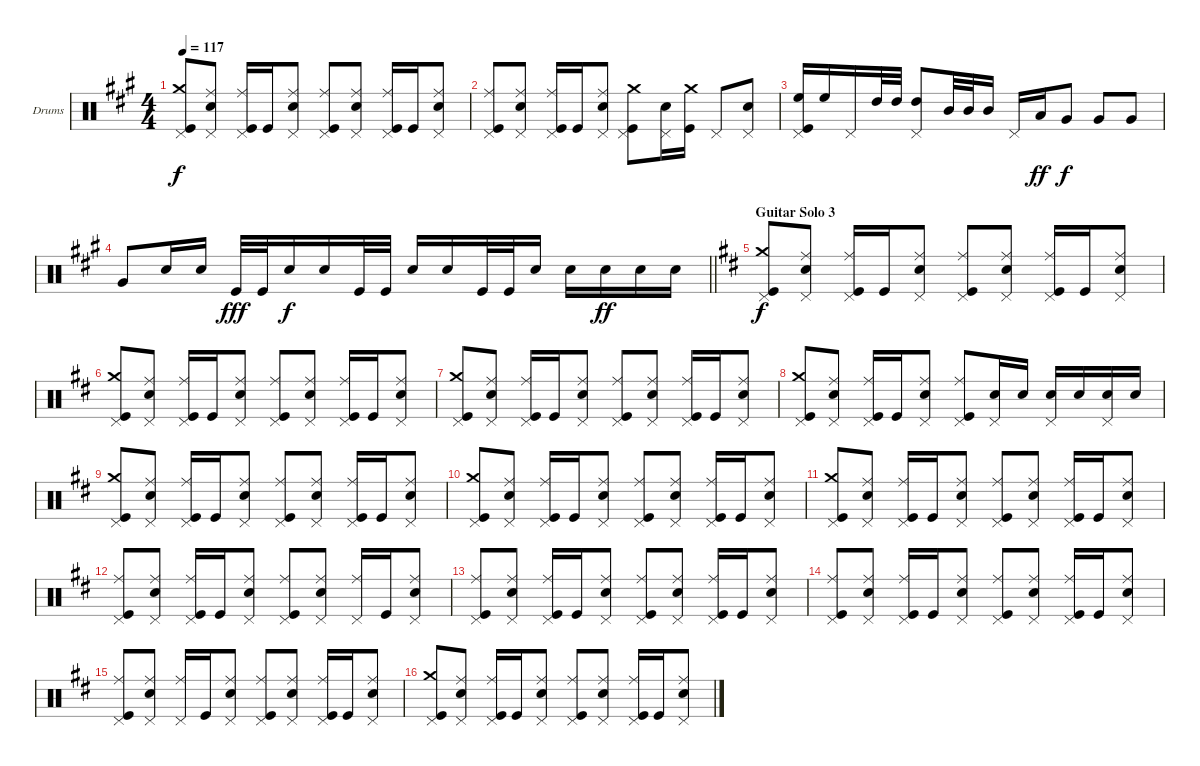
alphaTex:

\bracketExtendMode groupsimilarinstruments
\firstSystemTrackNameOrientation horizontal
\otherSystemsTrackNameOrientation horizontal
\track ("Барабаны" "Drums") {instrument percussion}
\staff {score}
\articulation defaults
\ts (4 4)
\tempo 117
\clef neutral
\ks f#minor
("Kick (hit)" "Crash medium (hit)" "Pedal Hi-Hat (hit)").8{dy f} ("Snare (hit) 2" "Pedal Hi-Hat (hit)" "Ride (middle)").8 ("Kick (hit)" "Pedal Hi-Hat (hit)" "Ride (middle)").16 "Kick (hit)".16 ("Snare (hit) 2" "Pedal Hi-Hat (hit)" "Ride (middle)").8 ("Kick (hit)" "Pedal Hi-Hat (hit)" "Ride (middle)").8 ("Snare (hit) 2" "Pedal Hi-Hat (hit)" "Ride (middle)").8 ("Kick (hit)" "Pedal Hi-Hat (hit)" "Ride (middle)").16 "Kick (hit)".16 ("Snare (hit) 2" "Pedal Hi-Hat (hit)" "Ride (middle)").8 |
("Kick (hit)" "Ride (middle)" "Pedal Hi-Hat (hit)").8 ("Snare (hit) 2" "Ride (middle)" "Pedal Hi-Hat (hit)").8 ("Kick (hit)" "Ride (middle)" "Pedal Hi-Hat (hit)").16 "Kick (hit)".16 ("Snare (hit) 2" "Ride (middle)" "Pedal Hi-Hat (hit)").8 ("Kick (hit)" "Crash medium (hit)" "Pedal Hi-Hat (hit)").8 ("Snare (hit) 2" "Pedal Hi-Hat (hit)").16 ("Kick (hit)" "Crash medium (hit)").16 "Pedal Hi-Hat (hit)".8 ("Snare (hit) 2" "Pedal Hi-Hat (hit)").8 |
("Kick (hit)" "Pedal Hi-Hat (hit)" "High Floor Tom (hit)").16 "High Floor Tom (hit)".16 "Pedal Hi-Hat (hit)".16 "High Tom (hit)".32 "High Tom (hit)".32 ("High Tom (hit)" "Pedal Hi-Hat (hit)").8 "Mid Tom (hit)".32 "Mid Tom (hit)".32 "Mid Tom (hit)".16 "Pedal Hi-Hat (hit)".16 "Low Tom (hit)".16{dy ff} "Very Low Tom (hit)".8{dy f} "Very Low Tom (hit)".8 "Very Low Tom (hit)".8 |
\barLineRight lightlight "Very Low Tom (hit)".8 "Snare (hit) 2".16 "Snare (hit) 2".16 "Kick (hit)".32{dy fff} "Kick (hit)".32 "Snare (hit) 2".16{dy f} "Snare (hit) 2".16 "Kick (hit)".32 "Kick (hit)".32 "Snare (hit) 2".16 "Snare (hit) 2".16 "Kick (hit)".32 "Kick (hit)".32 "Snare (hit) 2".16 "Snare (hit) 2".16 "Snare (hit) 2".16{dy ff} "Snare (hit) 2".16 "Snare (hit) 2".16
|
\section ("" "Guitar Solo 3")
\ks bminor
("Kick (hit)" "Crash medium (hit)" "Pedal Hi-Hat (hit)").8{dy f} ("Snare (hit) 2" "Ride (middle)" "Pedal Hi-Hat (hit)").8 ("Kick (hit)" "Ride (middle)" "Pedal Hi-Hat (hit)").16 "Kick (hit)".16 ("Snare (hit) 2" "Ride (middle)" "Pedal Hi-Hat (hit)").8 ("Kick (hit)" "Ride (middle)" "Pedal Hi-Hat (hit)").8 ("Snare (hit) 2" "Ride (middle)" "Pedal Hi-Hat (hit)").8 ("Kick (hit)" "Ride (middle)" "Pedal Hi-Hat (hit)").16 "Kick (hit)".16 ("Snare (hit) 2" "Ride (middle)" "Pedal Hi-Hat (hit)").8 |
("Kick (hit)" "Crash medium (hit)" "Pedal Hi-Hat (hit)").8 ("Snare (hit) 2" "Ride (middle)" "Pedal Hi-Hat (hit)").8 ("Kick (hit)" "Ride (middle)" "Pedal Hi-Hat (hit)").16 "Kick (hit)".16 ("Snare (hit) 2" "Ride (middle)" "Pedal Hi-Hat (hit)").8 ("Kick (hit)" "Ride (middle)" "Pedal Hi-Hat (hit)").8 ("Snare (hit) 2" "Ride (middle)" "Pedal Hi-Hat (hit)").8 ("Kick (hit)" "Ride (middle)" "Pedal Hi-Hat (hit)").16 "Kick (hit)".16 ("Snare (hit) 2" "Ride (middle)" "Pedal Hi-Hat (hit)").8 |
("Kick (hit)" "Crash medium (hit)" "Pedal Hi-Hat (hit)").8 ("Snare (hit) 2" "Ride (middle)" "Pedal Hi-Hat (hit)").8 ("Kick (hit)" "Ride (middle)" "Pedal Hi-Hat (hit)").16 "Kick (hit)".16 ("Snare (hit) 2" "Ride (middle)" "Pedal Hi-Hat (hit)").8 ("Kick (hit)" "Ride (middle)" "Pedal Hi-Hat (hit)").8 ("Snare (hit) 2" "Ride (middle)" "Pedal Hi-Hat (hit)").8 ("Kick (hit)" "Ride (middle)" "Pedal Hi-Hat (hit)").16 "Kick (hit)".16 ("Snare (hit) 2" "Ride (middle)" "Pedal Hi-Hat (hit)").8 |
("Kick (hit)" "Crash medium (hit)" "Pedal Hi-Hat (hit)").8 ("Snare (hit) 2" "Ride (middle)" "Pedal Hi-Hat (hit)").8 ("Kick (hit)" "Ride (middle)" "Pedal Hi-Hat (hit)").16 "Kick (hit)".16 ("Snare (hit) 2" "Ride (middle)" "Pedal Hi-Hat (hit)").8 ("Kick (hit)" "Ride (middle)" "Pedal Hi-Hat (hit)").8 ("Snare (hit) 2" "Pedal Hi-Hat (hit)").16 "Snare (hit) 2".16 ("Snare (hit) 2" "Pedal Hi-Hat (hit)").16 "Snare (hit) 2".16 ("Snare (hit) 2" "Pedal Hi-Hat (hit)").16 "Snare (hit) 2".16 |
("Kick (hit)" "Crash medium (hit)" "Pedal Hi-Hat (hit)").8 ("Snare (hit) 2" "Ride (middle)" "Pedal Hi-Hat (hit)").8 ("Kick (hit)" "Ride (middle)" "Pedal Hi-Hat (hit)").16 "Kick (hit)".16 ("Snare (hit) 2" "Ride (middle)" "Pedal Hi-Hat (hit)").8 ("Kick (hit)" "Ride (middle)" "Pedal Hi-Hat (hit)").8 ("Snare (hit) 2" "Ride (middle)" "Pedal Hi-Hat (hit)").8 ("Kick (hit)" "Ride (middle)" "Pedal Hi-Hat (hit)").16 "Kick (hit)".16 ("Snare (hit) 2" "Ride (middle)" "Pedal Hi-Hat (hit)").8 |
("Kick (hit)" "Crash medium (hit)" "Pedal Hi-Hat (hit)").8 ("Snare (hit) 2" "Ride (middle)" "Pedal Hi-Hat (hit)").8 ("Kick (hit)" "Ride (middle)" "Pedal Hi-Hat (hit)").16 "Kick (hit)".16 ("Snare (hit) 2" "Ride (middle)" "Pedal Hi-Hat (hit)").8 ("Kick (hit)" "Ride (middle)" "Pedal Hi-Hat (hit)").8 ("Snare (hit) 2" "Ride (middle)" "Pedal Hi-Hat (hit)").8 ("Kick (hit)" "Ride (middle)" "Pedal Hi-Hat (hit)").16 "Kick (hit)".16 ("Snare (hit) 2" "Ride (middle)" "Pedal Hi-Hat (hit)").8 |
("Kick (hit)" "Crash medium (hit)" "Pedal Hi-Hat (hit)").8 ("Snare (hit) 2" "Ride (middle)" "Pedal Hi-Hat (hit)").8 ("Kick (hit)" "Ride (middle)" "Pedal Hi-Hat (hit)").16 "Kick (hit)".16 ("Snare (hit) 2" "Ride (middle)" "Pedal Hi-Hat (hit)").8 ("Kick (hit)" "Ride (middle)" "Pedal Hi-Hat (hit)").8 ("Snare (hit) 2" "Ride (middle)" "Pedal Hi-Hat (hit)").8 ("Kick (hit)" "Ride (middle)" "Pedal Hi-Hat (hit)").16 "Kick (hit)".16 ("Snare (hit) 2" "Ride (middle)" "Pedal Hi-Hat (hit)").8 |
("Kick (hit)" "Ride (middle)" "Pedal Hi-Hat (hit)").8 ("Snare (hit) 2" "Ride (middle)" "Pedal Hi-Hat (hit)").8 ("Kick (hit)" "Ride (middle)" "Pedal Hi-Hat (hit)").16 "Kick (hit)".16 ("Snare (hit) 2" "Ride (middle)" "Pedal Hi-Hat (hit)").8 ("Kick (hit)" "Ride (middle)" "Pedal Hi-Hat (hit)").8 ("Snare (hit) 2" "Ride (middle)" "Pedal Hi-Hat (hit)").8 ("Ride (middle)" "Pedal Hi-Hat (hit)").16 "Kick (hit)".16 ("Snare (hit) 2" "Ride (middle)" "Pedal Hi-Hat (hit)").8 |
("Kick (hit)" "Ride (middle)" "Pedal Hi-Hat (hit)").8 ("Snare (hit) 2" "Ride (middle)" "Pedal Hi-Hat (hit)").8 ("Kick (hit)" "Ride (middle)" "Pedal Hi-Hat (hit)").16 "Kick (hit)".16 ("Snare (hit) 2" "Ride (middle)" "Pedal Hi-Hat (hit)").8 ("Kick (hit)" "Ride (middle)" "Pedal Hi-Hat (hit)").8 ("Snare (hit) 2" "Ride (middle)" "Pedal Hi-Hat (hit)").8 ("Kick (hit)" "Ride (middle)" "Pedal Hi-Hat (hit)").16 "Kick (hit)".16 ("Snare (hit) 2" "Ride (middle)" "Pedal Hi-Hat (hit)").8 |
("Kick (hit)" "Ride (middle)" "Pedal Hi-Hat (hit)").8 ("Snare (hit) 2" "Ride (middle)" "Pedal Hi-Hat (hit)").8 ("Kick (hit)" "Ride (middle)" "Pedal Hi-Hat (hit)").16 "Kick (hit)".16 ("Snare (hit) 2" "Ride (middle)" "Pedal Hi-Hat (hit)").8 ("Kick (hit)" "Ride (middle)" "Pedal Hi-Hat (hit)").8 ("Snare (hit) 2" "Ride (middle)" "Pedal Hi-Hat (hit)").8 ("Kick (hit)" "Ride (middle)" "Pedal Hi-Hat (hit)").16 "Kick (hit)".16 ("Snare (hit) 2" "Ride (middle)" "Pedal Hi-Hat (hit)").8 |
("Kick (hit)" "Ride (middle)" "Pedal Hi-Hat (hit)").8 ("Snare (hit) 2" "Ride (middle)" "Pedal Hi-Hat (hit)").8 ("Ride (middle)" "Pedal Hi-Hat (hit)").16 "Kick (hit)".16 ("Snare (hit) 2" "Ride (middle)" "Pedal Hi-Hat (hit)").8 ("Kick (hit)" "Ride (middle)" "Pedal Hi-Hat (hit)").8 ("Snare (hit) 2" "Ride (middle)" "Pedal Hi-Hat (hit)").8 ("Kick (hit)" "Ride (middle)" "Pedal Hi-Hat (hit)").16 "Kick (hit)".16 ("Snare (hit) 2" "Ride (middle)" "Pedal Hi-Hat (hit)").8 |
("Kick (hit)" "Crash medium (hit)" "Pedal Hi-Hat (hit)").8 ("Snare (hit) 2" "Ride (middle)" "Pedal Hi-Hat (hit)").8 ("Kick (hit)" "Ride (middle)" "Pedal Hi-Hat (hit)").16 "Kick (hit)".16 ("Snare (hit) 2" "Ride (middle)" "Pedal Hi-Hat (hit)").8 ("Kick (hit)" "Ride (middle)" "Pedal Hi-Hat (hit)").8 ("Snare (hit) 2" "Ride (middle)" "Pedal Hi-Hat (hit)").8 ("Kick (hit)" "Ride (middle)" "Pedal Hi-Hat (hit)").16 "Kick (hit)".16 ("Snare (hit) 2" "Ride (middle)" "Pedal Hi-Hat (hit)").8
